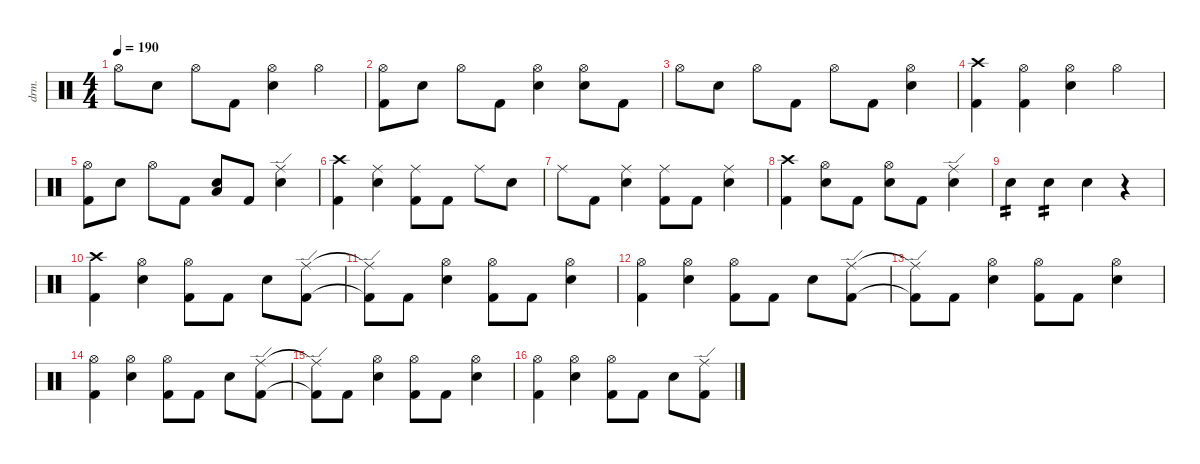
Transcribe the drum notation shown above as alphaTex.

\defaultSystemsLayout 4
\hideDynamics
\bracketExtendMode nobrackets
\track ("Drumkit" "drm.") {instrument percussion}
\staff {score}
\articulation defaults
\ts (4 4)
\tempo 190
\clef neutral
\ks c "Hi-Hat (open)".8{dy mf} "Snare (hit) 2".8 "Hi-Hat (open)".8 "Kick (hit) 2".8
("Hi-Hat (open)" "Snare (hit) 2").4 "Hi-Hat (open)".4 |
("Hi-Hat (open)" "Kick (hit) 2").8 "Snare (hit) 2".8 "Hi-Hat (open)".8 "Kick (hit) 2".8 ("Hi-Hat (open)" "Snare (hit) 2").4 ("Hi-Hat (open)" "Snare (hit) 2").8 "Kick (hit) 2".8 |
"Hi-Hat (open)".8 "Snare (hit) 2".8 "Hi-Hat (open)".8 "Kick (hit) 2".8 "Hi-Hat (open)".8 "Kick (hit) 2".8 ("Hi-Hat (open)" "Snare (hit) 2").4 |
("Crash high (hit)" "Kick (hit) 2").4 ("Hi-Hat (open)" "Kick (hit) 2").4 ("Hi-Hat (open)" "Snare (hit) 2").4 "Hi-Hat (open)".4 |
("Hi-Hat (open)" "Kick (hit) 2").8 "Snare (hit) 2".8 "Hi-Hat (open)".8 "Kick (hit) 2".8 ("Snare (hit) 2" "Low Tom (hit)").8 "Kick (hit) 2".8 ("Ride (edge)" "Snare (hit) 2").4 |
("Crash high (hit)" "Kick (hit) 2").4 ("Ride (middle)" "Snare (hit) 2").4 ("Ride (middle)" "Kick (hit) 2").8 "Kick (hit) 2".8 "Ride (middle)".8 "Snare (hit) 2".8 |
"Ride (middle)".8 "Kick (hit) 2".8 ("Ride (middle)" "Snare (hit) 2").4 ("Ride (middle)" "Kick (hit) 2").8 "Kick (hit) 2".8 ("Ride (middle)" "Snare (hit) 2").4 |
("Crash high (hit)" "Kick (hit) 2").4 ("Snare (hit) 2" "Hi-Hat (open)").8 "Kick (hit) 2".8 ("Snare (hit) 2" "Hi-Hat (open)").8 "Kick (hit) 2".8 ("Snare (hit) 2" "Ride (edge)").4 |
"Snare (hit) 2".4{tp 2} "Snare (hit) 2".4{tp 2} "Snare (hit) 2".4 r.4 |
("Crash high (hit)" "Kick (hit) 2").4 ("Hi-Hat (open)" "Snare (hit) 2").4 ("Hi-Hat (open)" "Kick (hit) 2").8 "Kick (hit) 2".8 "Snare (hit) 2".8 ("Ride (edge)" "Kick (hit) 2").8 |
("Ride (edge)"{t} "Kick (hit) 2"{t}).8 "Kick (hit) 2".8 ("Hi-Hat (open)" "Snare (hit) 2").4 ("Hi-Hat (open)" "Kick (hit) 2").8 "Kick (hit) 2".8 ("Hi-Hat (open)" "Snare (hit) 2").4 |
("Kick (hit) 2" "Hi-Hat (open)").4 ("Hi-Hat (open)" "Snare (hit) 2").4 ("Hi-Hat (open)" "Kick (hit) 2").8 "Kick (hit) 2".8 "Snare (hit) 2".8 ("Ride (edge)" "Kick (hit) 2").8 |
("Ride (edge)"{t} "Kick (hit) 2"{t}).8 "Kick (hit) 2".8 ("Hi-Hat (open)" "Snare (hit) 2").4 ("Hi-Hat (open)" "Kick (hit) 2").8 "Kick (hit) 2".8 ("Hi-Hat (open)" "Snare (hit) 2").4 |
("Kick (hit) 2" "Hi-Hat (open)").4 ("Hi-Hat (open)" "Snare (hit) 2").4 ("Hi-Hat (open)" "Kick (hit) 2").8 "Kick (hit) 2".8 "Snare (hit) 2".8 ("Ride (edge)" "Kick (hit) 2").8 |
("Ride (edge)"{t} "Kick (hit) 2"{t}).8 "Kick (hit) 2".8 ("Hi-Hat (open)" "Snare (hit) 2").4 ("Hi-Hat (open)" "Kick (hit) 2").8 "Kick (hit) 2".8 ("Hi-Hat (open)" "Snare (hit) 2").4 |
("Kick (hit) 2" "Hi-Hat (open)").4 ("Hi-Hat (open)" "Snare (hit) 2").4 ("Hi-Hat (open)" "Kick (hit) 2").8 "Kick (hit) 2".8 "Snare (hit) 2".8 ("Ride (edge)" "Kick (hit) 2").8
